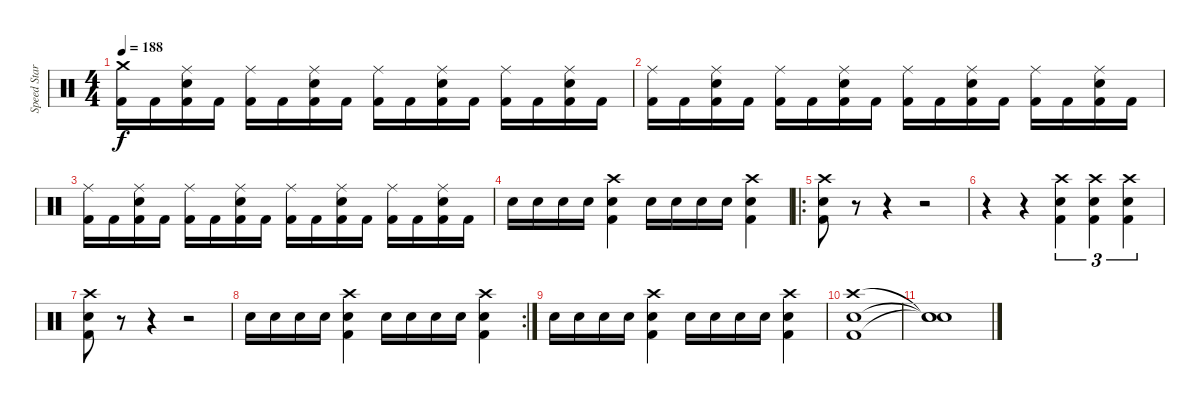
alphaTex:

\track ("Speed Star Sypan Joe" "Speed Star") {instrument percussion}
\staff {score}
\articulation defaults
\ts (4 4)
\tempo 188
\clef neutral
\ks c
("Kick (hit) 2" "Crash medium (hit)").16{dy f} "Kick (hit) 2".16 ("Kick (hit) 2" "Electric Snare (hit)" "Ride (middle)").16 "Kick (hit) 2".16 ("Kick (hit) 2" "Ride (middle)").16 "Kick (hit) 2".16 ("Kick (hit) 2" "Electric Snare (hit)" "Ride (middle)").16 "Kick (hit) 2".16 ("Kick (hit) 2" "Ride (middle)").16 "Kick (hit) 2".16 ("Kick (hit) 2" "Electric Snare (hit)" "Ride (middle)").16 "Kick (hit) 2".16 ("Kick (hit) 2" "Ride (middle)").16 "Kick (hit) 2".16 ("Kick (hit) 2" "Electric Snare (hit)" "Ride (middle)").16 "Kick (hit) 2".16 |
("Kick (hit) 2" "Ride (middle)").16 "Kick (hit) 2".16 ("Kick (hit) 2" "Electric Snare (hit)" "Ride (middle)").16 "Kick (hit) 2".16 ("Kick (hit) 2" "Ride (middle)").16 "Kick (hit) 2".16 ("Kick (hit) 2" "Electric Snare (hit)" "Ride (middle)").16 "Kick (hit) 2".16 ("Kick (hit) 2" "Ride (middle)").16 "Kick (hit) 2".16 ("Kick (hit) 2" "Electric Snare (hit)" "Ride (middle)").16 "Kick (hit) 2".16 ("Kick (hit) 2" "Ride (middle)").16 "Kick (hit) 2".16 ("Kick (hit) 2" "Electric Snare (hit)" "Ride (middle)").16 "Kick (hit) 2".16 |
("Kick (hit) 2" "Ride (middle)").16 "Kick (hit) 2".16 ("Kick (hit) 2" "Electric Snare (hit)" "Ride (middle)").16 "Kick (hit) 2".16 ("Kick (hit) 2" "Ride (middle)").16 "Kick (hit) 2".16 ("Kick (hit) 2" "Electric Snare (hit)" "Ride (middle)").16 "Kick (hit) 2".16 ("Kick (hit) 2" "Ride (middle)").16 "Kick (hit) 2".16 ("Kick (hit) 2" "Electric Snare (hit)" "Ride (middle)").16 "Kick (hit) 2".16 ("Kick (hit) 2" "Ride (middle)").16 "Kick (hit) 2".16 ("Kick (hit) 2" "Electric Snare (hit)" "Ride (middle)").16 "Kick (hit) 2".16 |
"Electric Snare (hit)".16 "Electric Snare (hit)".16 "Electric Snare (hit)".16 "Electric Snare (hit)".16 ("Electric Snare (hit)" "Kick (hit) 2" "Crash high (hit)").4 "Electric Snare (hit)".16 "Electric Snare (hit)".16 "Electric Snare (hit)".16 "Electric Snare (hit)".16 ("Electric Snare (hit)" "Kick (hit) 2" "Crash high (hit)").4 |
\ro
("Electric Snare (hit)" "Kick (hit) 2" "Crash high (hit)").8 r.8 r.4 r.2 |
r.4 r.4 ("Kick (hit) 2" "Electric Snare (hit)" "Crash high (hit)").4{tu (3 2)} ("Kick (hit) 2" "Electric Snare (hit)" "Crash high (hit)").4{tu (3 2)} ("Electric Snare (hit)" "Kick (hit) 2" "Crash high (hit)").4{tu (3 2)} |
("Electric Snare (hit)" "Kick (hit) 2" "Crash high (hit)").8 r.8 r.4 r.2 |
\rc 2 "Electric Snare (hit)".16 "Electric Snare (hit)".16 "Electric Snare (hit)".16 "Electric Snare (hit)".16
("Electric Snare (hit)" "Kick (hit) 2" "Crash high (hit)").4 "Electric Snare (hit)".16 "Electric Snare (hit)".16 "Electric Snare (hit)".16 "Electric Snare (hit)".16 ("Electric Snare (hit)" "Kick (hit) 2" "Crash high (hit)").4 |
"Electric Snare (hit)".16 "Electric Snare (hit)".16 "Electric Snare (hit)".16 "Electric Snare (hit)".16 ("Electric Snare (hit)" "Kick (hit) 2" "Crash high (hit)").4 "Electric Snare (hit)".16 "Electric Snare (hit)".16 "Electric Snare (hit)".16 "Electric Snare (hit)".16 ("Electric Snare (hit)" "Kick (hit) 2" "Crash high (hit)").4 |
("Kick (hit) 2" "Electric Snare (hit)" "Crash high (hit)").1 |
("Snare (hit)"{t} "Snare (hit)"{t} "Snare (hit)"{t}).1
